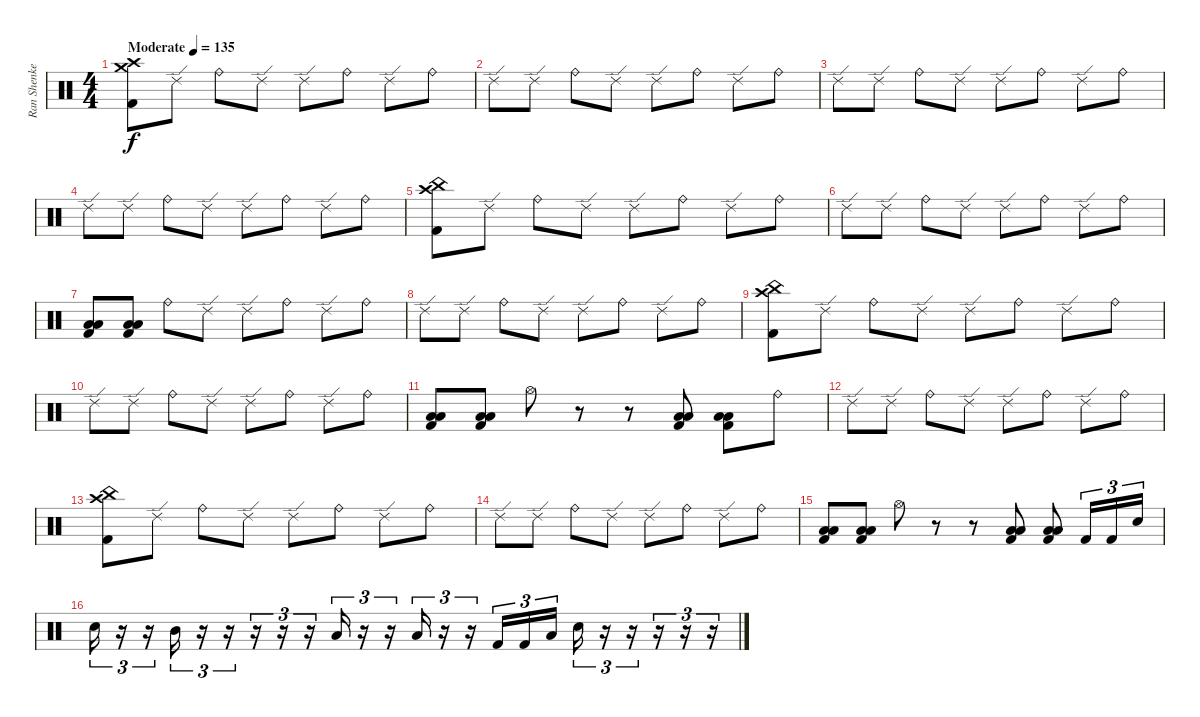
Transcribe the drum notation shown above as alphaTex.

\track ("Ran Shenkerman" "Ran Shenke") {instrument percussion}
\staff {score}
\articulation defaults
\ts (4 4)
\tempo (135 "Moderate")
\clef neutral
\ks c
("Crash high (hit)" "Crash medium (hit)" "Kick (hit) 2").8{dy f} "Ride (edge) 2".8 "Ride (bell)".8 "Ride (edge) 2".8 "Ride (edge) 2".8 "Ride (bell)".8 "Ride (edge) 2".8 "Ride (bell)".8 |
"Ride (edge) 2".8 "Ride (edge) 2".8 "Ride (bell)".8 "Ride (edge) 2".8 "Ride (edge) 2".8 "Ride (bell)".8 "Ride (edge) 2".8 "Ride (bell)".8 |
"Ride (edge) 2".8 "Ride (edge) 2".8 "Ride (bell)".8 "Ride (edge) 2".8 "Ride (edge) 2".8 "Ride (bell)".8 "Ride (edge) 2".8 "Ride (bell)".8 |
"Ride (edge) 2".8 "Ride (edge) 2".8 "Ride (bell)".8 "Ride (edge) 2".8 "Ride (edge) 2".8 "Ride (bell)".8 "Ride (edge) 2".8 "Ride (bell)".8 |
("Crash high (hit)" "China (hit)" "Kick (hit) 2").8 "Ride (edge) 2".8 "Ride (bell)".8 "Ride (edge) 2".8 "Ride (edge) 2".8 "Ride (bell)".8 "Ride (edge) 2".8 "Ride (bell)".8 |
"Ride (edge) 2".8 "Ride (edge) 2".8 "Ride (bell)".8 "Ride (edge) 2".8 "Ride (edge) 2".8 "Ride (bell)".8 "Ride (edge) 2".8 "Ride (bell)".8 |
("Low Tom (hit)" "Low Floor Tom (hit)" "Kick (hit) 2").8 ("Low Tom (hit)" "Low Floor Tom (hit)" "Kick (hit) 2").8 "Ride (bell)".8 "Ride (edge) 2".8 "Ride (edge) 2".8 "Ride (bell)".8 "Ride (edge) 2".8 "Ride (bell)".8 |
"Ride (edge) 2".8 "Ride (edge) 2".8 "Ride (bell)".8 "Ride (edge) 2".8 "Ride (edge) 2".8 "Ride (bell)".8 "Ride (edge) 2".8 "Ride (bell)".8 |
("Crash high (hit)" "China (hit)" "Kick (hit) 2").8 "Ride (edge) 2".8 "Ride (bell)".8 "Ride (edge) 2".8 "Ride (edge) 2".8 "Ride (bell)".8 "Ride (edge) 2".8 "Ride (bell)".8 |
"Ride (edge) 2".8 "Ride (edge) 2".8 "Ride (bell)".8 "Ride (edge) 2".8 "Ride (edge) 2".8 "Ride (bell)".8 "Ride (edge) 2".8 "Ride (bell)".8 |
("Low Tom (hit)" "Low Floor Tom (hit)" "Kick (hit) 2").8 ("Low Tom (hit)" "Low Floor Tom (hit)" "Kick (hit) 2").8 "Hi-Hat (open)".8 r.8 r.8 ("Low Tom (hit)" "Low Floor Tom (hit)" "Kick (hit) 2").8 ("Low Tom (hit)" "Low Floor Tom (hit)" "Kick (hit) 2").8 "Ride (bell)".8 |
"Ride (edge) 2".8 "Ride (edge) 2".8 "Ride (bell)".8 "Ride (edge) 2".8 "Ride (edge) 2".8 "Ride (bell)".8 "Ride (edge) 2".8 "Ride (bell)".8 |
("Crash high (hit)" "China (hit)" "Kick (hit) 2").8 "Ride (edge) 2".8 "Ride (bell)".8 "Ride (edge) 2".8 "Ride (edge) 2".8 "Ride (bell)".8 "Ride (edge) 2".8 "Ride (bell)".8 |
"Ride (edge) 2".8 "Ride (edge) 2".8 "Ride (bell)".8 "Ride (edge) 2".8 "Ride (edge) 2".8 "Ride (bell)".8 "Ride (edge) 2".8 "Ride (bell)".8 |
("Low Tom (hit)" "Low Floor Tom (hit)" "Kick (hit) 2").8 ("Low Tom (hit)" "Low Floor Tom (hit)" "Kick (hit) 2").8 "Hi-Hat (open)".8 r.8 r.8 ("Low Tom (hit)" "Low Floor Tom (hit)" "Kick (hit) 2").8 ("Low Tom (hit)" "Low Floor Tom (hit)" "Kick (hit) 2").8 "Kick (hit) 2".16{tu (3 2)} "Kick (hit) 2".16{tu (3 2)} "Snare (hit) 2".16{tu (3 2)} |
"Snare (hit) 2".16{tu (3 2)} r.16{tu (3 2)} r.16{tu (3 2)} "Mid Tom (hit)".16{tu (3 2)} r.16{tu (3 2)} r.16{tu (3 2)} r.16{tu (3 2)} r.16{tu (3 2)} r.16{tu (3 2)} "Low Tom (hit)".16{tu (3 2)} r.16{tu (3 2)} r.16{tu (3 2)} "Low Tom (hit)".16{tu (3 2)} r.16{tu (3 2)} r.16{tu (3 2)} "Kick (hit) 2".16{tu (3 2)} "Kick (hit) 2".16{tu (3 2)} "Low Floor Tom (hit)".16{tu (3 2)} "Snare (hit) 2".16{tu (3 2)} r.16{tu (3 2)} r.16{tu (3 2)} r.16{tu (3 2)} r.16{tu (3 2)} r.16{tu (3 2)}
